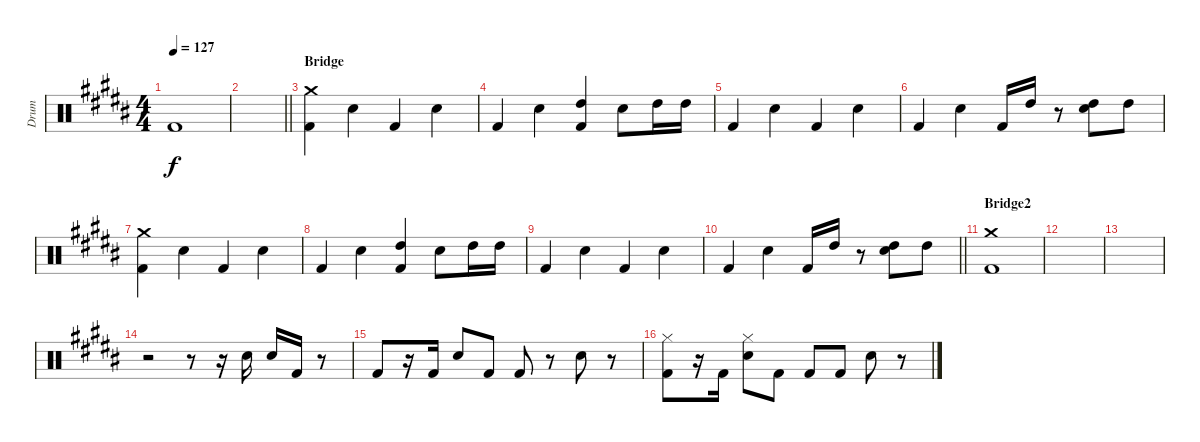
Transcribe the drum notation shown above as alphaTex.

\track ("Drum" "Drum") {instrument percussion}
\staff {score}
\articulation defaults
\ts (4 4)
\tempo 127
\clef neutral
\ks g#minor "Kick (hit) 2".1{dy f}
|
\barLineRight lightlight
|
\section ("" "Bridge")
("Crash medium (hit)" "Kick (hit) 2").4 "Snare (hit) 2".4 "Kick (hit) 2".4 "Snare (hit) 2".4 |
"Kick (hit) 2".4 "Snare (hit) 2".4 ("High Tom (hit)" "Kick (hit) 2").4 "Snare (hit) 2".8 "High Tom (hit)".16 "High Tom (hit)".16 |
"Kick (hit) 2".4 "Snare (hit) 2".4 "Kick (hit) 2".4 "Snare (hit) 2".4 |
"Kick (hit) 2".4 "Snare (hit) 2".4 "Kick (hit) 2".16 "High Tom (hit)".16 r.8 ("High Tom (hit)" "Snare (hit) 2").8 "High Tom (hit)".8 |
("Crash medium (hit)" "Kick (hit) 2").4 "Snare (hit) 2".4 "Kick (hit) 2".4 "Snare (hit) 2".4 |
"Kick (hit) 2".4 "Snare (hit) 2".4 ("High Tom (hit)" "Kick (hit) 2").4 "Snare (hit) 2".8 "High Tom (hit)".16 "High Tom (hit)".16 |
"Kick (hit) 2".4 "Snare (hit) 2".4 "Kick (hit) 2".4 "Snare (hit) 2".4 |
\barLineRight lightlight "Kick (hit) 2".4 "Snare (hit) 2".4 "Kick (hit) 2".16 "High Tom (hit)".16
r.8 ("High Tom (hit)" "Snare (hit) 2").8 "High Tom (hit)".8 |
\section ("" "Bridge2")
("Crash medium (hit)" "Kick (hit) 2").1 |
|
|
r.2 r.8 r.16 "Snare (hit) 2".16 "Snare (hit) 2".16 "Kick (hit) 2".16 r.8 |
"Kick (hit) 2".8 r.16 "Kick (hit) 2".16 "Snare (hit) 2".8 "Kick (hit) 2".8 "Kick (hit) 2".8 r.8 "Snare (hit) 2".8 r.8 |
("Hi-Hat (closed)" "Kick (hit) 2").8 r.16 "Kick (hit) 2".16 ("Hi-Hat (closed)" "Snare (hit) 2").8 "Kick (hit) 2".8 "Kick (hit) 2".8 "Kick (hit) 2".8 "Snare (hit) 2".8 r.8
